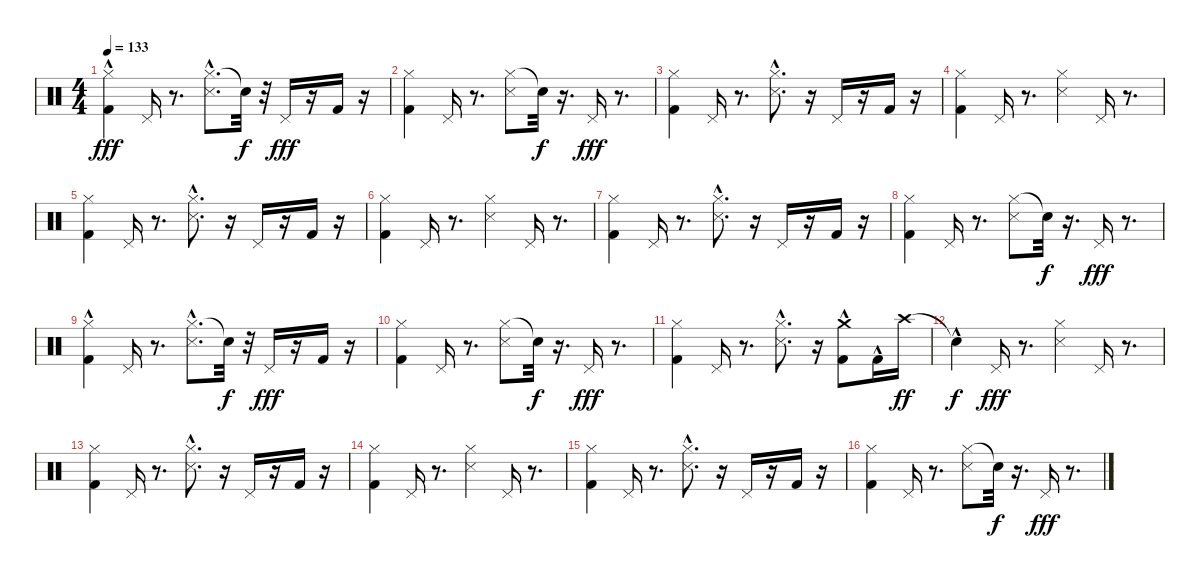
\track "" {instrument percussion}
\staff {score}
\articulation defaults
\ts (4 4)
\tempo 133
\clef neutral
\ks c
("Hi-Hat (closed)" "Kick (hit) 2"{hac}).4{dy fff} "Pedal Hi-Hat (hit)".16 r.8{d} ("Hi-Hat (closed)" "Snare (side stick) 3"{hac}).8{d} "Snare (hit)"{t}.32{dy f} r.32 "Pedal Hi-Hat (hit)".16{dy fff} r.16 "Kick (hit) 2".16 r.16 |
("Hi-Hat (closed)" "Kick (hit) 2").4 "Pedal Hi-Hat (hit)".16 r.8{d} ("Hi-Hat (closed)" "Snare (side stick) 3").8 "Snare (hit)"{t}.32{dy f} r.16{d} "Pedal Hi-Hat (hit)".16{dy fff} r.8{d} |
("Kick (hit) 2" "Hi-Hat (closed)").4 "Pedal Hi-Hat (hit)".16 r.8{d} ("Hi-Hat (closed)" "Snare (side stick) 3"{hac}).8{d} r.16 "Pedal Hi-Hat (hit)".16 r.16 "Kick (hit) 2".16 r.16 |
("Hi-Hat (closed)" "Kick (hit) 2").4 "Pedal Hi-Hat (hit)".16 r.8{d} ("Hi-Hat (closed)" "Snare (side stick) 3").4 "Pedal Hi-Hat (hit)".16 r.8{d} |
("Hi-Hat (closed)" "Kick (hit) 2").4 "Pedal Hi-Hat (hit)".16 r.8{d} ("Hi-Hat (closed)" "Snare (side stick) 3"{hac}).8{d} r.16 "Pedal Hi-Hat (hit)".16 r.16 "Kick (hit) 2".16 r.16 |
("Hi-Hat (closed)" "Kick (hit) 2").4 "Pedal Hi-Hat (hit)".16 r.8{d} ("Hi-Hat (closed)" "Snare (side stick) 3").4 "Pedal Hi-Hat (hit)".16 r.8{d} |
("Hi-Hat (closed)" "Kick (hit) 2").4 "Pedal Hi-Hat (hit)".16 r.8{d} ("Snare (side stick) 3"{hac} "Hi-Hat (closed)").8{d} r.16 "Pedal Hi-Hat (hit)".16 r.16 "Kick (hit) 2".16 r.16 |
("Hi-Hat (closed)" "Kick (hit) 2").4 "Pedal Hi-Hat (hit)".16 r.8{d} ("Hi-Hat (closed)" "Snare (side stick) 3").8 "Snare (hit)"{t}.32{dy f} r.16{d} "Pedal Hi-Hat (hit)".16{dy fff} r.8{d} |
("Hi-Hat (closed)" "Kick (hit) 2"{hac}).4 "Pedal Hi-Hat (hit)".16 r.8{d} ("Hi-Hat (closed)" "Snare (side stick) 3"{hac}).8{d} "Snare (hit)"{t}.32{dy f} r.32 "Pedal Hi-Hat (hit)".16{dy fff} r.16 "Kick (hit) 2".16 r.16 |
("Hi-Hat (closed)" "Kick (hit) 2").4 "Pedal Hi-Hat (hit)".16 r.8{d} ("Hi-Hat (closed)" "Snare (side stick) 3").8 "Snare (hit)"{t}.32{dy f} r.16{d} "Pedal Hi-Hat (hit)".16{dy fff} r.8{d} |
("Kick (hit) 2" "Hi-Hat (closed)").4 "Pedal Hi-Hat (hit)".16 r.8{d} ("Hi-Hat (closed)" "Snare (side stick) 3"{hac}).8{d} r.16 ("Crash medium (hit)" "Kick (hit) 2"{hac}).8 "Kick (hit) 2"{hac}.16 "Crash high (hit)".16{dy ff} |
"Snare (hit)"{hac t}.4{dy f} "Pedal Hi-Hat (hit)".16{dy fff} r.8{d} ("Hi-Hat (closed)" "Snare (side stick) 3").4 "Pedal Hi-Hat (hit)".16 r.8{d} |
("Hi-Hat (closed)" "Kick (hit) 2").4 "Pedal Hi-Hat (hit)".16 r.8{d} ("Hi-Hat (closed)" "Snare (side stick) 3"{hac}).8{d} r.16 "Pedal Hi-Hat (hit)".16 r.16 "Kick (hit) 2".16 r.16 |
("Hi-Hat (closed)" "Kick (hit) 2").4 "Pedal Hi-Hat (hit)".16 r.8{d} ("Hi-Hat (closed)" "Snare (side stick) 3").4 "Pedal Hi-Hat (hit)".16 r.8{d} |
("Hi-Hat (closed)" "Kick (hit) 2").4 "Pedal Hi-Hat (hit)".16 r.8{d} ("Snare (side stick) 3"{hac} "Hi-Hat (closed)").8{d} r.16 "Pedal Hi-Hat (hit)".16 r.16 "Kick (hit) 2".16 r.16 |
("Hi-Hat (closed)" "Kick (hit) 2").4 "Pedal Hi-Hat (hit)".16 r.8{d} ("Hi-Hat (closed)" "Snare (side stick) 3").8 "Snare (hit)"{t}.32{dy f} r.16{d} "Pedal Hi-Hat (hit)".16{dy fff} r.8{d}
